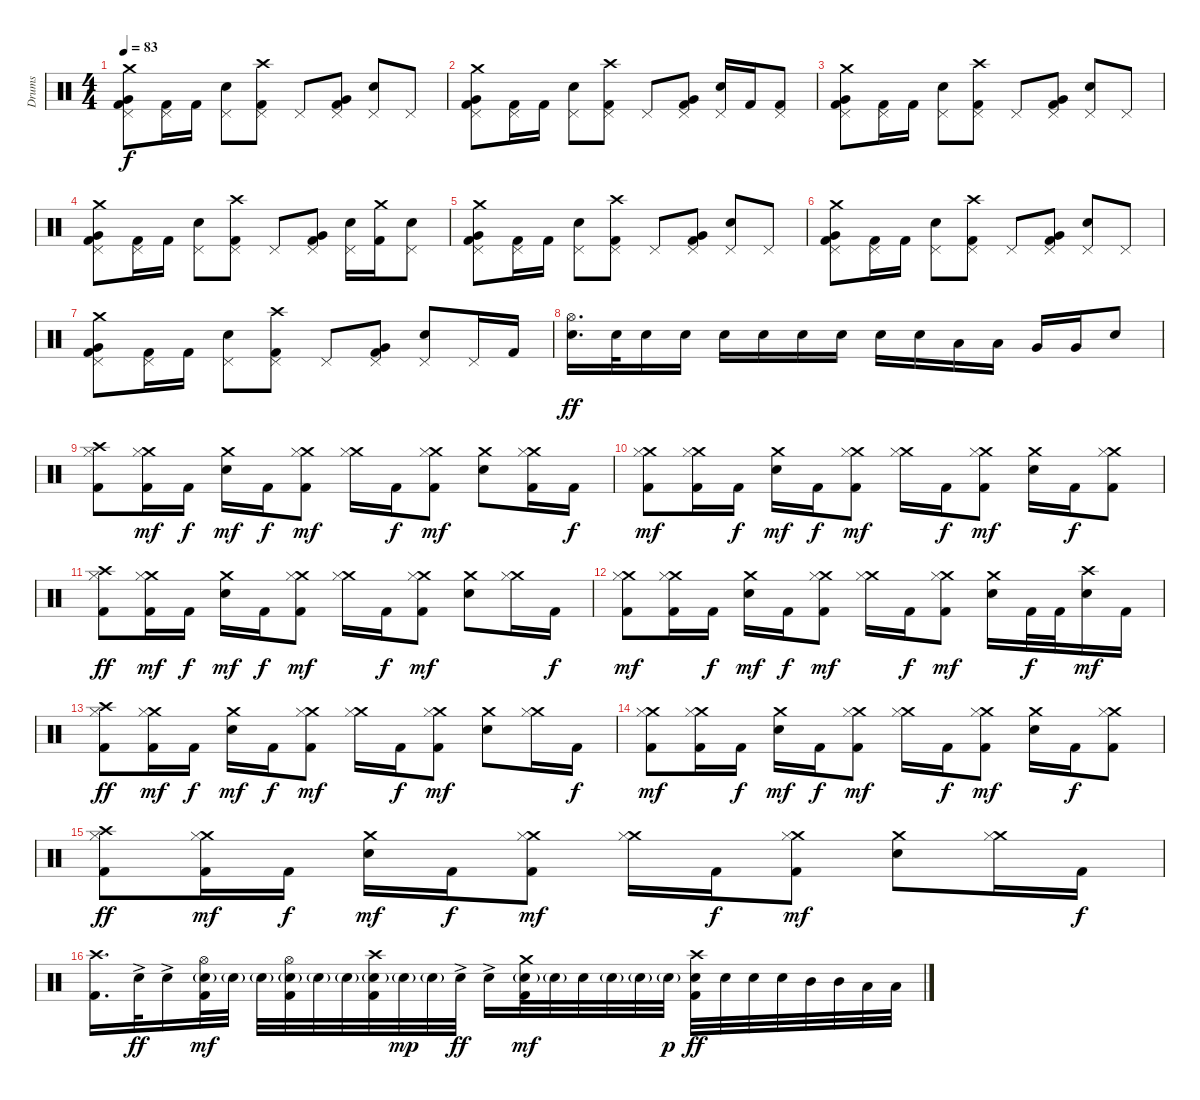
\track ("Drums" "Drums") {instrument percussion}
\staff {score}
\articulation defaults
\ts (4 4)
\tempo 83
\clef neutral
\ks c
("Crash medium (hit)" "Very Low Tom (hit)" "Pedal Hi-Hat (hit)" "Kick (hit) 2").8{dy f} ("Pedal Hi-Hat (hit)" "Kick (hit) 2").16 "Kick (hit) 2".16 ("Electric Snare (hit)" "Pedal Hi-Hat (hit)").8 ("Crash high (hit)" "Pedal Hi-Hat (hit)" "Kick (hit) 2").8 "Pedal Hi-Hat (hit)".8 ("Very Low Tom (hit)" "Pedal Hi-Hat (hit)" "Kick (hit) 2").8 ("Electric Snare (hit)" "Pedal Hi-Hat (hit)").8 "Pedal Hi-Hat (hit)".8 |
("Crash medium (hit)" "Very Low Tom (hit)" "Pedal Hi-Hat (hit)" "Kick (hit) 2").8 ("Pedal Hi-Hat (hit)" "Kick (hit) 2").16 "Kick (hit) 2".16 ("Electric Snare (hit)" "Pedal Hi-Hat (hit)").8 ("Crash high (hit)" "Pedal Hi-Hat (hit)" "Kick (hit) 2").8 "Pedal Hi-Hat (hit)".8 ("Very Low Tom (hit)" "Pedal Hi-Hat (hit)" "Kick (hit) 2").8 ("Electric Snare (hit)" "Pedal Hi-Hat (hit)").16 "Kick (hit) 2".16 ("Pedal Hi-Hat (hit)" "Kick (hit) 2").8 |
("Crash medium (hit)" "Very Low Tom (hit)" "Pedal Hi-Hat (hit)" "Kick (hit) 2").8 ("Pedal Hi-Hat (hit)" "Kick (hit) 2").16 "Kick (hit) 2".16 ("Electric Snare (hit)" "Pedal Hi-Hat (hit)").8 ("Crash high (hit)" "Pedal Hi-Hat (hit)" "Kick (hit) 2").8 "Pedal Hi-Hat (hit)".8 ("Very Low Tom (hit)" "Pedal Hi-Hat (hit)" "Kick (hit) 2").8 ("Electric Snare (hit)" "Pedal Hi-Hat (hit)").8 "Pedal Hi-Hat (hit)".8 |
("Crash medium (hit)" "Very Low Tom (hit)" "Pedal Hi-Hat (hit)" "Kick (hit) 2").8 ("Pedal Hi-Hat (hit)" "Kick (hit) 2").16 "Kick (hit) 2".16 ("Electric Snare (hit)" "Pedal Hi-Hat (hit)").8 ("Crash high (hit)" "Pedal Hi-Hat (hit)" "Kick (hit) 2").8 "Pedal Hi-Hat (hit)".8 ("Very Low Tom (hit)" "Pedal Hi-Hat (hit)" "Kick (hit) 2").8 ("Electric Snare (hit)" "Pedal Hi-Hat (hit)").16 ("Crash medium (hit)" "Kick (hit) 2").16 ("Electric Snare (hit)" "Pedal Hi-Hat (hit)").8 |
("Crash medium (hit)" "Very Low Tom (hit)" "Pedal Hi-Hat (hit)" "Kick (hit) 2").8 ("Pedal Hi-Hat (hit)" "Kick (hit) 2").16 "Kick (hit) 2".16 ("Electric Snare (hit)" "Pedal Hi-Hat (hit)").8 ("Crash high (hit)" "Pedal Hi-Hat (hit)" "Kick (hit) 2").8 "Pedal Hi-Hat (hit)".8 ("Very Low Tom (hit)" "Pedal Hi-Hat (hit)" "Kick (hit) 2").8 ("Electric Snare (hit)" "Pedal Hi-Hat (hit)").8 "Pedal Hi-Hat (hit)".8 |
("Crash medium (hit)" "Very Low Tom (hit)" "Pedal Hi-Hat (hit)" "Kick (hit) 2").8 ("Pedal Hi-Hat (hit)" "Kick (hit) 2").16 "Kick (hit) 2".16 ("Electric Snare (hit)" "Pedal Hi-Hat (hit)").8 ("Crash high (hit)" "Pedal Hi-Hat (hit)" "Kick (hit) 2").8 "Pedal Hi-Hat (hit)".8 ("Very Low Tom (hit)" "Pedal Hi-Hat (hit)" "Kick (hit) 2").8 ("Electric Snare (hit)" "Pedal Hi-Hat (hit)").8 "Pedal Hi-Hat (hit)".8 |
("Crash medium (hit)" "Very Low Tom (hit)" "Pedal Hi-Hat (hit)" "Kick (hit) 2").8 ("Pedal Hi-Hat (hit)" "Kick (hit) 2").16 "Kick (hit) 2".16 ("Electric Snare (hit)" "Pedal Hi-Hat (hit)").8 ("Crash high (hit)" "Pedal Hi-Hat (hit)" "Kick (hit) 2").8 "Pedal Hi-Hat (hit)".8 ("Very Low Tom (hit)" "Pedal Hi-Hat (hit)" "Kick (hit) 2").8 ("Electric Snare (hit)" "Pedal Hi-Hat (hit)").8 "Pedal Hi-Hat (hit)".16 "Kick (hit) 2".16 |
("Hi-Hat (open)" "Electric Snare (hit)").16{d dy ff} "Electric Snare (hit)".32 "Electric Snare (hit)".16 "Electric Snare (hit)".16 "Electric Snare (hit)".16 "Electric Snare (hit)".16 "Electric Snare (hit)".16 "Electric Snare (hit)".16 "Electric Snare (hit)".16 "Electric Snare (hit)".16 "Low Tom (hit)".16 "Low Tom (hit)".16 "Very Low Tom (hit)".16 "Very Low Tom (hit)".16 "Electric Snare (hit)".8 |
("Crash high (hit)" "Hi-Hat (closed)" "Kick (hit) 2").8 ("Crash medium (hit)" "Hi-Hat (closed)" "Kick (hit) 2").16{dy mf} "Kick (hit) 2".16{dy f} ("Crash medium (hit)" "Electric Snare (hit)").16{dy mf} "Kick (hit) 2".16{dy f} ("Crash medium (hit)" "Hi-Hat (closed)" "Kick (hit) 2").8{dy mf} ("Crash medium (hit)" "Hi-Hat (closed)").16 "Kick (hit) 2".16{dy f} ("Crash medium (hit)" "Hi-Hat (closed)" "Kick (hit) 2").8{dy mf} ("Crash medium (hit)" "Electric Snare (hit)").8 ("Crash medium (hit)" "Hi-Hat (closed)" "Kick (hit) 2").16 "Kick (hit) 2".16{dy f} |
("Crash medium (hit)" "Hi-Hat (closed)" "Kick (hit) 2").8{dy mf} ("Crash medium (hit)" "Hi-Hat (closed)" "Kick (hit) 2").16 "Kick (hit) 2".16{dy f} ("Crash medium (hit)" "Electric Snare (hit)").16{dy mf} "Kick (hit) 2".16{dy f} ("Crash medium (hit)" "Hi-Hat (closed)" "Kick (hit) 2").8{dy mf} ("Crash medium (hit)" "Hi-Hat (closed)").16 "Kick (hit) 2".16{dy f} ("Crash medium (hit)" "Hi-Hat (closed)" "Kick (hit) 2").8{dy mf} ("Crash medium (hit)" "Electric Snare (hit)").16 "Kick (hit) 2".16{dy f} ("Crash medium (hit)" "Hi-Hat (closed)" "Kick (hit) 2").8 |
("Crash high (hit)" "Hi-Hat (closed)" "Kick (hit) 2").8{dy ff} ("Crash medium (hit)" "Hi-Hat (closed)" "Kick (hit) 2").16{dy mf} "Kick (hit) 2".16{dy f} ("Crash medium (hit)" "Electric Snare (hit)").16{dy mf} "Kick (hit) 2".16{dy f} ("Crash medium (hit)" "Hi-Hat (closed)" "Kick (hit) 2").8{dy mf} ("Crash medium (hit)" "Hi-Hat (closed)").16 "Kick (hit) 2".16{dy f} ("Crash medium (hit)" "Hi-Hat (closed)" "Kick (hit) 2").8{dy mf} ("Crash medium (hit)" "Electric Snare (hit)").8 ("Crash medium (hit)" "Hi-Hat (closed)").16 "Kick (hit) 2".16{dy f} |
("Crash medium (hit)" "Hi-Hat (closed)" "Kick (hit) 2").8{dy mf} ("Crash medium (hit)" "Hi-Hat (closed)" "Kick (hit) 2").16 "Kick (hit) 2".16{dy f} ("Crash medium (hit)" "Electric Snare (hit)").16{dy mf} "Kick (hit) 2".16{dy f} ("Crash medium (hit)" "Hi-Hat (closed)" "Kick (hit) 2").8{dy mf} ("Crash medium (hit)" "Hi-Hat (closed)").16 "Kick (hit) 2".16{dy f} ("Crash medium (hit)" "Hi-Hat (closed)" "Kick (hit) 2").8{dy mf} ("Crash medium (hit)" "Electric Snare (hit)").16 "Kick (hit) 2".32{dy f} "Kick (hit) 2".32 ("Crash high (hit)" "Electric Snare (hit)").16{dy mf} "Kick (hit) 2".16 |
("Crash high (hit)" "Hi-Hat (closed)" "Kick (hit) 2").8{dy ff} ("Crash medium (hit)" "Hi-Hat (closed)" "Kick (hit) 2").16{dy mf} "Kick (hit) 2".16{dy f} ("Crash medium (hit)" "Electric Snare (hit)").16{dy mf} "Kick (hit) 2".16{dy f} ("Crash medium (hit)" "Hi-Hat (closed)" "Kick (hit) 2").8{dy mf} ("Crash medium (hit)" "Hi-Hat (closed)").16 "Kick (hit) 2".16{dy f} ("Crash medium (hit)" "Hi-Hat (closed)" "Kick (hit) 2").8{dy mf} ("Crash medium (hit)" "Electric Snare (hit)").8 ("Crash medium (hit)" "Hi-Hat (closed)").16 "Kick (hit) 2".16{dy f} |
("Crash medium (hit)" "Hi-Hat (closed)" "Kick (hit) 2").8{dy mf} ("Crash medium (hit)" "Hi-Hat (closed)" "Kick (hit) 2").16 "Kick (hit) 2".16{dy f} ("Crash medium (hit)" "Electric Snare (hit)").16{dy mf} "Kick (hit) 2".16{dy f} ("Crash medium (hit)" "Hi-Hat (closed)" "Kick (hit) 2").8{dy mf} ("Crash medium (hit)" "Hi-Hat (closed)").16 "Kick (hit) 2".16{dy f} ("Crash medium (hit)" "Hi-Hat (closed)" "Kick (hit) 2").8{dy mf} ("Crash medium (hit)" "Electric Snare (hit)").16 "Kick (hit) 2".16{dy f} ("Crash medium (hit)" "Hi-Hat (closed)" "Kick (hit) 2").8 |
("Crash high (hit)" "Hi-Hat (closed)" "Kick (hit) 2").8{dy ff} ("Crash medium (hit)" "Hi-Hat (closed)" "Kick (hit) 2").16{dy mf} "Kick (hit) 2".16{dy f} ("Crash medium (hit)" "Electric Snare (hit)").16{dy mf} "Kick (hit) 2".16{dy f} ("Crash medium (hit)" "Hi-Hat (closed)" "Kick (hit) 2").8{dy mf} ("Crash medium (hit)" "Hi-Hat (closed)").16 "Kick (hit) 2".16{dy f} ("Crash medium (hit)" "Hi-Hat (closed)" "Kick (hit) 2").8{dy mf} ("Crash medium (hit)" "Electric Snare (hit)").8 ("Crash medium (hit)" "Hi-Hat (closed)").16 "Kick (hit) 2".16{dy f} |
("Crash high (hit)" "Kick (hit) 2").16{d} "Electric Snare (hit)"{ac}.32{dy ff} "Electric Snare (hit)"{ac}.16 ("Hi-Hat (open)" "Electric Snare (hit)"{g} "Kick (hit) 2").32{dy mf} "Electric Snare (hit)"{g}.32 "Electric Snare (hit)"{g}.32 ("Hi-Hat (open)" "Electric Snare (hit)"{g} "Kick (hit) 2").32 "Electric Snare (hit)"{g}.32 "Electric Snare (hit)"{g}.32 ("Crash high (hit)" "Electric Snare (hit)"{g} "Kick (hit) 2").32 "Electric Snare (hit)"{g}.32{dy mp} "Electric Snare (hit)"{g}.32 "Electric Snare (hit)"{ac}.32{dy ff} "Electric Snare (hit)"{ac}.16 ("Crash medium (hit)" "Electric Snare (hit)"{g} "Kick (hit) 2").32{dy mf} "Electric Snare (hit)"{g}.32 "Electric Snare (hit)".32 "Electric Snare (hit)"{g}.32 "Electric Snare (hit)"{g}.32 "Electric Snare (hit)"{g}.32{dy p} ("Crash high (hit)" "Electric Snare (hit)" "Kick (hit) 2").32{dy ff} "Electric Snare (hit)".32 "Electric Snare (hit)".32 "Electric Snare (hit)".32 "Mid Tom (hit)".32 "Mid Tom (hit)".32 "Low Tom (hit)".32 "Low Tom (hit)".32
